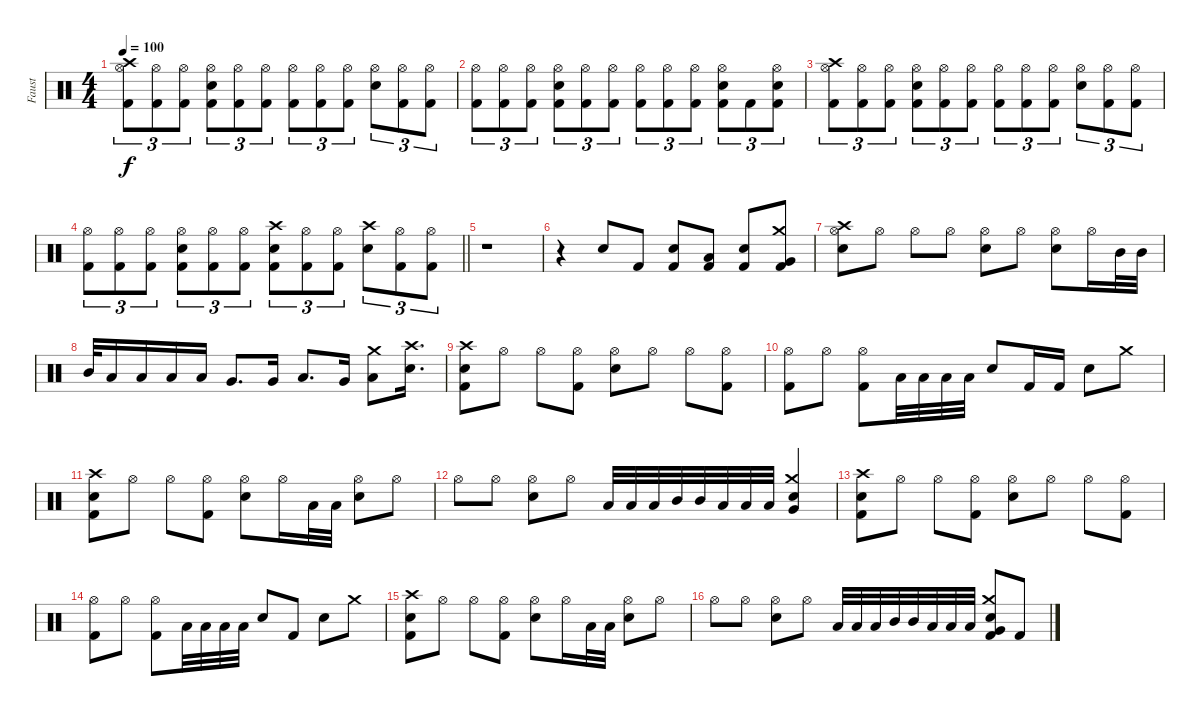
\track ("Faust" "Faust") {instrument percussion}
\staff {score}
\articulation defaults
\ts (4 4)
\tempo 100
\clef neutral
\ks c
("Crash high (hit)" "Hi-Hat (open)" "Kick (hit) 2").8{tu (3 2) dy f} ("Hi-Hat (open)" "Kick (hit) 2").8{tu (3 2)} ("Hi-Hat (open)" "Kick (hit) 2").8{tu (3 2)} ("Snare (hit) 2" "Hi-Hat (open)" "Kick (hit) 2").8{tu (3 2)} ("Hi-Hat (open)" "Kick (hit) 2").8{tu (3 2)} ("Hi-Hat (open)" "Kick (hit) 2").8{tu (3 2)} ("Hi-Hat (open)" "Kick (hit) 2").8{tu (3 2)} ("Hi-Hat (open)" "Kick (hit) 2").8{tu (3 2)} ("Hi-Hat (open)" "Kick (hit) 2").8{tu (3 2)} ("Snare (hit) 2" "Hi-Hat (open)").8{tu (3 2)} ("Hi-Hat (open)" "Kick (hit) 2").8{tu (3 2)} ("Hi-Hat (open)" "Kick (hit) 2").8{tu (3 2)} |
("Hi-Hat (open)" "Kick (hit) 2").8{tu (3 2)} ("Hi-Hat (open)" "Kick (hit) 2").8{tu (3 2)} ("Hi-Hat (open)" "Kick (hit) 2").8{tu (3 2)} ("Snare (hit) 2" "Hi-Hat (open)" "Kick (hit) 2").8{tu (3 2)} ("Hi-Hat (open)" "Kick (hit) 2").8{tu (3 2)} ("Hi-Hat (open)" "Kick (hit) 2").8{tu (3 2)} ("Hi-Hat (open)" "Kick (hit) 2").8{tu (3 2)} ("Hi-Hat (open)" "Kick (hit) 2").8{tu (3 2)} ("Hi-Hat (open)" "Kick (hit) 2").8{tu (3 2)} ("Snare (hit) 2" "Hi-Hat (open)" "Kick (hit) 2").8{tu (3 2)} "Kick (hit) 2".8{tu (3 2)} ("Snare (hit) 2" "Hi-Hat (open)" "Kick (hit) 2").8{tu (3 2)} |
("Crash high (hit)" "Hi-Hat (open)" "Kick (hit) 2").8{tu (3 2)} ("Hi-Hat (open)" "Kick (hit) 2").8{tu (3 2)} ("Hi-Hat (open)" "Kick (hit) 2").8{tu (3 2)} ("Snare (hit) 2" "Hi-Hat (open)" "Kick (hit) 2").8{tu (3 2)} ("Hi-Hat (open)" "Kick (hit) 2").8{tu (3 2)} ("Hi-Hat (open)" "Kick (hit) 2").8{tu (3 2)} ("Hi-Hat (open)" "Kick (hit) 2").8{tu (3 2)} ("Hi-Hat (open)" "Kick (hit) 2").8{tu (3 2)} ("Hi-Hat (open)" "Kick (hit) 2").8{tu (3 2)} ("Snare (hit) 2" "Hi-Hat (open)").8{tu (3 2)} ("Hi-Hat (open)" "Kick (hit) 2").8{tu (3 2)} ("Hi-Hat (open)" "Kick (hit) 2").8{tu (3 2)} |
\barLineRight lightlight
("Hi-Hat (open)" "Kick (hit) 2").8{tu (3 2)} ("Hi-Hat (open)" "Kick (hit) 2").8{tu (3 2)} ("Hi-Hat (open)" "Kick (hit) 2").8{tu (3 2)} ("Snare (hit) 2" "Hi-Hat (open)" "Kick (hit) 2").8{tu (3 2)} ("Hi-Hat (open)" "Kick (hit) 2").8{tu (3 2)} ("Hi-Hat (open)" "Kick (hit) 2").8{tu (3 2)} ("Crash high (hit)" "Snare (hit) 2" "Kick (hit) 2").8{tu (3 2)} ("Hi-Hat (open)" "Kick (hit) 2").8{tu (3 2)} ("Hi-Hat (open)" "Kick (hit) 2").8{tu (3 2)} ("Crash high (hit)" "Snare (hit) 2").8{tu (3 2)} ("Hi-Hat (open)" "Kick (hit) 2").8{tu (3 2)} ("Hi-Hat (open)" "Kick (hit) 2").8{tu (3 2)} |
r.1 |
r.4 "Snare (hit) 2".8 "Kick (hit) 2".8 ("Snare (hit) 2" "Kick (hit) 2").8 ("Low Tom (hit)" "Kick (hit) 2").8 ("Snare (hit) 2" "Kick (hit) 2").8 ("Crash medium (hit)" "Very Low Tom (hit)" "Kick (hit) 2").8 |
("Crash high (hit)" "Snare (hit) 2" "Hi-Hat (open)").8 "Hi-Hat (open)".8 "Hi-Hat (open)".8 "Hi-Hat (open)".8 ("Snare (hit) 2" "Hi-Hat (open)").8 "Hi-Hat (open)".8 ("Snare (hit) 2" "Hi-Hat (open)").8 "Hi-Hat (open)".16 "Mid Tom (hit)".32 "Mid Tom (hit)".32 |
"Mid Tom (hit)".32 "Low Tom (hit)".16 "Low Tom (hit)".16 "Low Tom (hit)".16 "Low Tom (hit)".16 "Very Low Tom (hit)".8{d} "Very Low Tom (hit)".16 "Low Tom (hit)".8{d} "Very Low Tom (hit)".16 ("Crash medium (hit)" "Low Tom (hit)").8 ("Crash high (hit)" "Snare (hit) 2").16{d} |
("Crash high (hit)" "Snare (hit) 2" "Kick (hit) 2").8 "Hi-Hat (open)".8 "Hi-Hat (open)".8 ("Hi-Hat (open)" "Kick (hit) 2").8 ("Snare (hit) 2" "Hi-Hat (open)").8 "Hi-Hat (open)".8 "Hi-Hat (open)".8 ("Hi-Hat (open)" "Kick (hit) 2").8 |
("Hi-Hat (open)" "Kick (hit) 2").8 "Hi-Hat (open)".8 ("Hi-Hat (open)" "Kick (hit) 2").8 "Low Tom (hit)".32 "Low Tom (hit)".32 "Low Tom (hit)".32 "Low Tom (hit)".32 "Snare (hit) 2".8 "Kick (hit) 2".16 "Kick (hit) 2".16 "Snare (hit) 2".8 "Crash medium (hit)".8 |
("Crash high (hit)" "Snare (hit) 2" "Kick (hit) 2").8 "Hi-Hat (open)".8 "Hi-Hat (open)".8 ("Hi-Hat (open)" "Kick (hit) 2").8 ("Snare (hit) 2" "Hi-Hat (open)").8 "Hi-Hat (open)".16 "Low Tom (hit)".32 "Low Tom (hit)".32 ("Snare (hit) 2" "Hi-Hat (open)").8 "Hi-Hat (open)".8 |
"Hi-Hat (open)".8 "Hi-Hat (open)".8 ("Snare (hit) 2" "Hi-Hat (open)").8 "Hi-Hat (open)".8 "Low Tom (hit)".32 "Low Tom (hit)".32 "Low Tom (hit)".32 "Mid Tom (hit)".32 "Mid Tom (hit)".32 "Low Tom (hit)".32 "Low Tom (hit)".32 "Low Tom (hit)".32 ("Crash medium (hit)" "Snare (hit) 2" "Very Low Tom (hit)").4 |
("Crash high (hit)" "Snare (hit) 2" "Kick (hit) 2").8 "Hi-Hat (open)".8 "Hi-Hat (open)".8 ("Hi-Hat (open)" "Kick (hit) 2").8 ("Snare (hit) 2" "Hi-Hat (open)").8 "Hi-Hat (open)".8 "Hi-Hat (open)".8 ("Hi-Hat (open)" "Kick (hit) 2").8 |
("Hi-Hat (open)" "Kick (hit) 2").8 "Hi-Hat (open)".8 ("Hi-Hat (open)" "Kick (hit) 2").8 "Low Tom (hit)".32 "Low Tom (hit)".32 "Low Tom (hit)".32 "Low Tom (hit)".32 "Snare (hit) 2".8 "Kick (hit) 2".8 "Snare (hit) 2".8 "Crash medium (hit)".8 |
("Crash high (hit)" "Snare (hit) 2" "Kick (hit) 2").8 "Hi-Hat (open)".8 "Hi-Hat (open)".8 ("Hi-Hat (open)" "Kick (hit) 2").8 ("Snare (hit) 2" "Hi-Hat (open)").8 "Hi-Hat (open)".16 "Low Tom (hit)".32 "Low Tom (hit)".32 ("Snare (hit) 2" "Hi-Hat (open)").8 "Hi-Hat (open)".8 |
"Hi-Hat (open)".8 "Hi-Hat (open)".8 ("Snare (hit) 2" "Hi-Hat (open)").8 "Hi-Hat (open)".8 "Low Tom (hit)".32 "Low Tom (hit)".32 "Low Tom (hit)".32 "Mid Tom (hit)".32 "Mid Tom (hit)".32 "Low Tom (hit)".32 "Low Tom (hit)".32 "Low Tom (hit)".32 ("Crash medium (hit)" "Snare (hit) 2" "Very Low Tom (hit)" "Kick (hit) 2").8 "Kick (hit) 2".8
